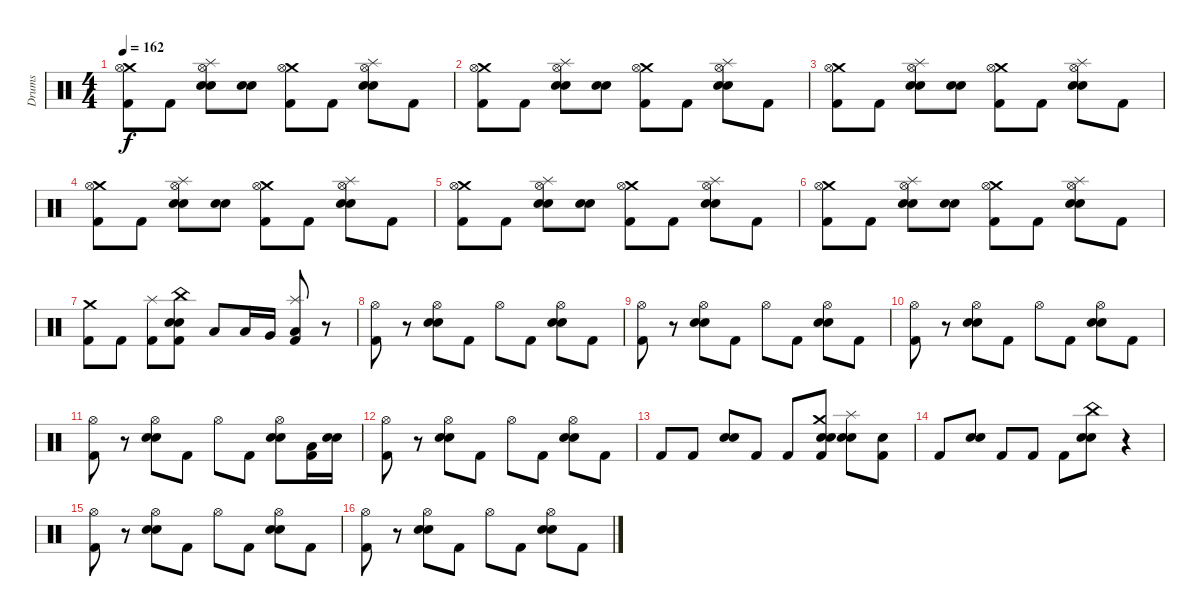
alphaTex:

\track ("Drums" "Drums") {instrument percussion}
\staff {score}
\articulation defaults
\ts (4 4)
\tempo 162
\clef neutral
\ks c
("Kick (hit) 2" "Crash medium (hit)" "Hi-Hat (open)").8{dy f} "Kick (hit) 2".8 ("Electric Snare (hit)" "Snare (hit) 2" "Splash (hit)" "Hi-Hat (open)").8 ("Electric Snare (hit)" "Snare (hit) 2").8 ("Kick (hit) 2" "Crash medium (hit)" "Hi-Hat (open)").8 "Kick (hit) 2".8 ("Electric Snare (hit)" "Snare (hit) 2" "Splash (hit)" "Hi-Hat (open)").8 "Kick (hit) 2".8 |
("Kick (hit) 2" "Crash medium (hit)" "Hi-Hat (open)").8 "Kick (hit) 2".8 ("Electric Snare (hit)" "Snare (hit) 2" "Splash (hit)" "Hi-Hat (open)").8 ("Electric Snare (hit)" "Snare (hit) 2").8 ("Kick (hit) 2" "Crash medium (hit)" "Hi-Hat (open)").8 "Kick (hit) 2".8 ("Electric Snare (hit)" "Snare (hit) 2" "Splash (hit)" "Hi-Hat (open)").8 "Kick (hit) 2".8 |
("Kick (hit) 2" "Crash medium (hit)" "Hi-Hat (open)").8 "Kick (hit) 2".8 ("Electric Snare (hit)" "Snare (hit) 2" "Splash (hit)" "Hi-Hat (open)").8 ("Electric Snare (hit)" "Snare (hit) 2").8 ("Kick (hit) 2" "Crash medium (hit)" "Hi-Hat (open)").8 "Kick (hit) 2".8 ("Electric Snare (hit)" "Snare (hit) 2" "Splash (hit)" "Hi-Hat (open)").8 "Kick (hit) 2".8 |
("Kick (hit) 2" "Crash medium (hit)" "Hi-Hat (open)").8 "Kick (hit) 2".8 ("Electric Snare (hit)" "Snare (hit) 2" "Splash (hit)" "Hi-Hat (open)").8 ("Electric Snare (hit)" "Snare (hit) 2").8 ("Kick (hit) 2" "Crash medium (hit)" "Hi-Hat (open)").8 "Kick (hit) 2".8 ("Electric Snare (hit)" "Snare (hit) 2" "Splash (hit)" "Hi-Hat (open)").8 "Kick (hit) 2".8 |
("Kick (hit) 2" "Crash medium (hit)" "Hi-Hat (open)").8 "Kick (hit) 2".8 ("Electric Snare (hit)" "Snare (hit) 2" "Splash (hit)" "Hi-Hat (open)").8 ("Electric Snare (hit)" "Snare (hit) 2").8 ("Kick (hit) 2" "Crash medium (hit)" "Hi-Hat (open)").8 "Kick (hit) 2".8 ("Electric Snare (hit)" "Snare (hit) 2" "Splash (hit)" "Hi-Hat (open)").8 "Kick (hit) 2".8 |
("Kick (hit) 2" "Crash medium (hit)" "Hi-Hat (open)").8 "Kick (hit) 2".8 ("Electric Snare (hit)" "Snare (hit) 2" "Splash (hit)" "Hi-Hat (open)").8 ("Electric Snare (hit)" "Snare (hit) 2").8 ("Kick (hit) 2" "Crash medium (hit)" "Hi-Hat (open)").8 "Kick (hit) 2".8 ("Electric Snare (hit)" "Snare (hit) 2" "Splash (hit)" "Hi-Hat (open)").8 "Kick (hit) 2".8 |
("Crash medium (hit)" "Kick (hit) 2").8 "Kick (hit) 2".8 ("Splash (hit)" "Kick (hit) 2").8 ("Kick (hit) 2" "China (hit)" "Electric Snare (hit)" "Snare (hit) 2").8 "Low Tom (hit)".8 "Low Tom (hit)".16 "Very Low Tom (hit)".16 ("Low Tom (hit)" "Splash (hit)" "Kick (hit) 2").8 r.8 |
("Hi-Hat (open)" "Kick (hit) 2").8 r.8 ("Hi-Hat (open)" "Electric Snare (hit)" "Snare (hit) 2").8 "Kick (hit) 2".8 "Hi-Hat (open)".8 "Kick (hit) 2".8 ("Hi-Hat (open)" "Electric Snare (hit)" "Snare (hit) 2").8 "Kick (hit) 2".8 |
("Hi-Hat (open)" "Kick (hit) 2").8 r.8 ("Hi-Hat (open)" "Electric Snare (hit)" "Snare (hit) 2").8 "Kick (hit) 2".8 "Hi-Hat (open)".8 "Kick (hit) 2".8 ("Hi-Hat (open)" "Electric Snare (hit)" "Snare (hit) 2").8 "Kick (hit) 2".8 |
("Hi-Hat (open)" "Kick (hit) 2").8 r.8 ("Hi-Hat (open)" "Electric Snare (hit)" "Snare (hit) 2").8 "Kick (hit) 2".8 "Hi-Hat (open)".8 "Kick (hit) 2".8 ("Hi-Hat (open)" "Electric Snare (hit)" "Snare (hit) 2").8 "Kick (hit) 2".8 |
("Hi-Hat (open)" "Kick (hit) 2").8 r.8 ("Hi-Hat (open)" "Electric Snare (hit)" "Snare (hit) 2").8 "Kick (hit) 2".8 "Hi-Hat (open)".8 "Kick (hit) 2".8 ("Hi-Hat (open)" "Electric Snare (hit)" "Snare (hit) 2").8 ("Kick (hit) 2" "Low Floor Tom (hit)").16 ("Electric Snare (hit)" "Snare (hit) 2").16 |
("Hi-Hat (open)" "Kick (hit) 2").8 r.8 ("Hi-Hat (open)" "Electric Snare (hit)" "Snare (hit) 2").8 "Kick (hit) 2".8 "Hi-Hat (open)".8 "Kick (hit) 2".8 ("Hi-Hat (open)" "Electric Snare (hit)" "Snare (hit) 2").8 "Kick (hit) 2".8 |
"Kick (hit) 2".8 "Kick (hit) 2".8 ("Electric Snare (hit)" "Snare (hit) 2").8 "Kick (hit) 2".8 "Kick (hit) 2".8 ("Electric Snare (hit)" "Snare (hit) 2" "Crash medium (hit)" "Kick (hit) 2").8 ("Splash (hit)" "Electric Snare (hit)" "Snare (hit) 2").8 ("Snare (hit) 2" "Kick (hit) 2").8 |
"Kick (hit) 2".8 ("Electric Snare (hit)" "Snare (hit) 2").8 "Kick (hit) 2".8 "Kick (hit) 2".8 "Kick (hit) 2".8 ("Electric Snare (hit)" "Snare (hit) 2" "China (hit)").8 r.4 |
("Hi-Hat (open)" "Kick (hit) 2").8 r.8 ("Hi-Hat (open)" "Electric Snare (hit)" "Snare (hit) 2").8 "Kick (hit) 2".8 "Hi-Hat (open)".8 "Kick (hit) 2".8 ("Hi-Hat (open)" "Electric Snare (hit)" "Snare (hit) 2").8 "Kick (hit) 2".8 |
("Hi-Hat (open)" "Kick (hit) 2").8 r.8 ("Hi-Hat (open)" "Electric Snare (hit)" "Snare (hit) 2").8 "Kick (hit) 2".8 "Hi-Hat (open)".8 "Kick (hit) 2".8 ("Hi-Hat (open)" "Electric Snare (hit)" "Snare (hit) 2").8 "Kick (hit) 2".8
